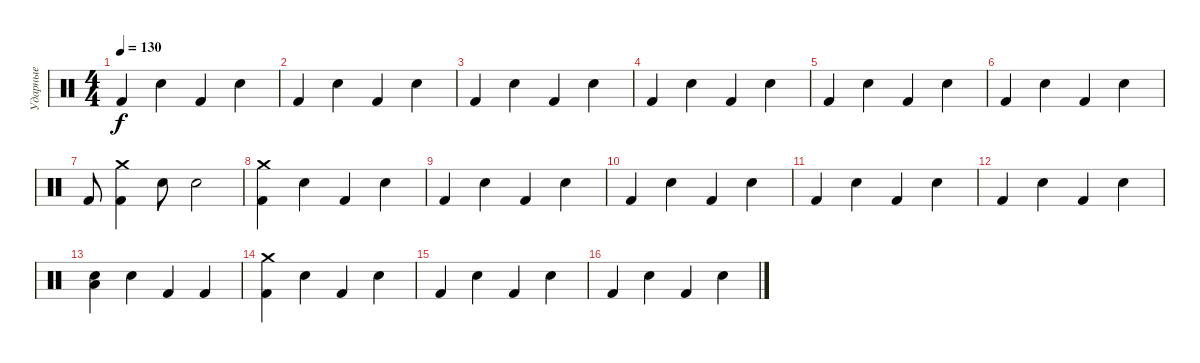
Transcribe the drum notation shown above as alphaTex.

\track ("Ударные" "Ударные") {instrument percussion}
\staff {score}
\articulation defaults
\ts (4 4)
\tempo 130
\clef neutral
\ks c "Kick (hit) 2".4{dy f} "Snare (hit) 2".4 "Kick (hit) 2".4 "Snare (hit) 2".4
|
"Kick (hit) 2".4 "Snare (hit) 2".4 "Kick (hit) 2".4 "Snare (hit) 2".4 |
"Kick (hit) 2".4 "Snare (hit) 2".4 "Kick (hit) 2".4 "Snare (hit) 2".4 |
"Kick (hit) 2".4 "Snare (hit) 2".4 "Kick (hit) 2".4 "Snare (hit) 2".4 |
"Kick (hit) 2".4 "Snare (hit) 2".4 "Kick (hit) 2".4 "Snare (hit) 2".4 |
"Kick (hit) 2".4 "Snare (hit) 2".4 "Kick (hit) 2".4 "Snare (hit) 2".4 |
"Kick (hit) 2".8 ("Kick (hit) 2" "Crash medium (hit)").4 "Snare (hit) 2".8 "Snare (hit) 2".2 |
("Kick (hit) 2" "Crash medium (hit)").4 "Snare (hit) 2".4 "Kick (hit) 2".4 "Snare (hit) 2".4 |
"Kick (hit) 2".4 "Snare (hit) 2".4 "Kick (hit) 2".4 "Snare (hit) 2".4 |
"Kick (hit) 2".4 "Snare (hit) 2".4 "Kick (hit) 2".4 "Snare (hit) 2".4 |
"Kick (hit) 2".4 "Snare (hit) 2".4 "Kick (hit) 2".4 "Snare (hit) 2".4 |
"Kick (hit) 2".4 "Snare (hit) 2".4 "Kick (hit) 2".4 "Snare (hit) 2".4 |
("Electric Snare (hit)" "Low Floor Tom (hit)").4 "Snare (hit) 2".4 "Kick (hit) 2".4 "Kick (hit) 2".4 |
("Kick (hit) 2" "Crash medium (hit)").4 "Snare (hit) 2".4 "Kick (hit) 2".4 "Snare (hit) 2".4 |
"Kick (hit) 2".4 "Snare (hit) 2".4 "Kick (hit) 2".4 "Snare (hit) 2".4 |
"Kick (hit) 2".4 "Snare (hit) 2".4 "Kick (hit) 2".4 "Snare (hit) 2".4
